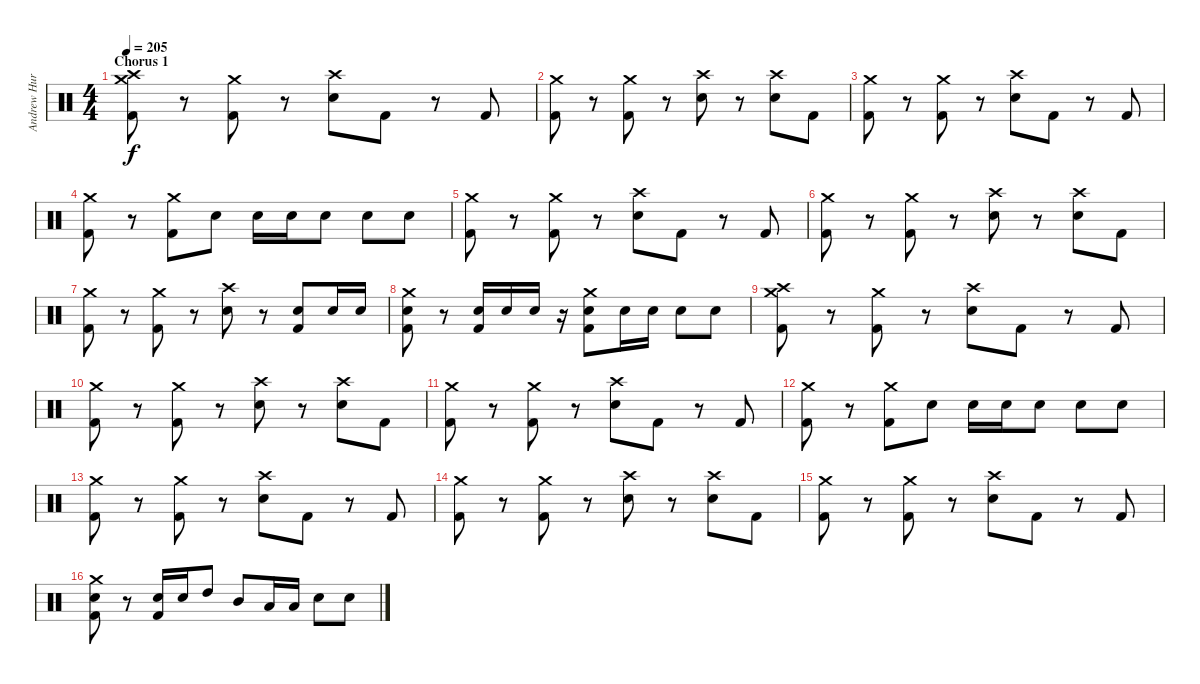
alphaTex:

\track ("Andrew Hurley (Drums)" "Andrew Hur") {instrument percussion}
\staff {score}
\articulation defaults
\ts (4 4)
\section ("" "Chorus 1")
\tempo 205
\clef neutral
\ks c
("Crash high (hit)" "Crash medium (hit)" "Kick (hit) 2").8{dy f} r.8 ("Crash medium (hit)" "Kick (hit) 2").8 r.8 ("Crash high (hit)" "Electric Snare (hit)").8 "Kick (hit) 2".8 r.8 "Kick (hit) 2".8 |
("Crash medium (hit)" "Kick (hit) 2").8 r.8 ("Crash medium (hit)" "Kick (hit) 2").8 r.8 ("Crash high (hit)" "Electric Snare (hit)").8 r.8 ("Crash high (hit)" "Electric Snare (hit)").8 "Kick (hit) 2".8 |
("Crash medium (hit)" "Kick (hit) 2").8 r.8 ("Crash medium (hit)" "Kick (hit) 2").8 r.8 ("Crash high (hit)" "Electric Snare (hit)").8 "Kick (hit) 2".8 r.8 "Kick (hit) 2".8 |
("Crash medium (hit)" "Kick (hit) 2").8 r.8 ("Crash medium (hit)" "Kick (hit) 2").8 "Electric Snare (hit)".8 "Electric Snare (hit)".16 "Electric Snare (hit)".16 "Electric Snare (hit)".8 "Electric Snare (hit)".8 "Electric Snare (hit)".8 |
("Crash medium (hit)" "Kick (hit) 2").8 r.8 ("Crash medium (hit)" "Kick (hit) 2").8 r.8 ("Crash high (hit)" "Electric Snare (hit)").8 "Kick (hit) 2".8 r.8 "Kick (hit) 2".8 |
("Crash medium (hit)" "Kick (hit) 2").8 r.8 ("Crash medium (hit)" "Kick (hit) 2").8 r.8 ("Crash high (hit)" "Electric Snare (hit)").8 r.8 ("Crash high (hit)" "Electric Snare (hit)").8 "Kick (hit) 2".8 |
("Crash medium (hit)" "Kick (hit) 2").8 r.8 ("Crash medium (hit)" "Kick (hit) 2").8 r.8 ("Crash high (hit)" "Electric Snare (hit)").8 r.8 ("Electric Snare (hit)" "Kick (hit) 2").8 "Electric Snare (hit)".16 "Electric Snare (hit)".16 |
("Crash medium (hit)" "Electric Snare (hit)" "Kick (hit) 2").8 r.8 ("Electric Snare (hit)" "Kick (hit) 2").16 "Electric Snare (hit)".16 "Electric Snare (hit)".16 r.16 ("Crash medium (hit)" "Electric Snare (hit)" "Kick (hit) 2").8 "Electric Snare (hit)".16 "Electric Snare (hit)".16 "Electric Snare (hit)".8 "Electric Snare (hit)".8 |
("Crash high (hit)" "Crash medium (hit)" "Kick (hit) 2").8 r.8 ("Crash medium (hit)" "Kick (hit) 2").8 r.8 ("Crash high (hit)" "Electric Snare (hit)").8 "Kick (hit) 2".8 r.8 "Kick (hit) 2".8 |
("Crash medium (hit)" "Kick (hit) 2").8 r.8 ("Crash medium (hit)" "Kick (hit) 2").8 r.8 ("Crash high (hit)" "Electric Snare (hit)").8 r.8 ("Crash high (hit)" "Electric Snare (hit)").8 "Kick (hit) 2".8 |
("Crash medium (hit)" "Kick (hit) 2").8 r.8 ("Crash medium (hit)" "Kick (hit) 2").8 r.8 ("Crash high (hit)" "Electric Snare (hit)").8 "Kick (hit) 2".8 r.8 "Kick (hit) 2".8 |
("Crash medium (hit)" "Kick (hit) 2").8 r.8 ("Crash medium (hit)" "Kick (hit) 2").8 "Electric Snare (hit)".8 "Electric Snare (hit)".16 "Electric Snare (hit)".16 "Electric Snare (hit)".8 "Electric Snare (hit)".8 "Electric Snare (hit)".8 |
("Crash medium (hit)" "Kick (hit) 2").8 r.8 ("Crash medium (hit)" "Kick (hit) 2").8 r.8 ("Crash high (hit)" "Electric Snare (hit)").8 "Kick (hit) 2".8 r.8 "Kick (hit) 2".8 |
("Crash medium (hit)" "Kick (hit) 2").8 r.8 ("Crash medium (hit)" "Kick (hit) 2").8 r.8 ("Crash high (hit)" "Electric Snare (hit)").8 r.8 ("Crash high (hit)" "Electric Snare (hit)").8 "Kick (hit) 2".8 |
("Crash medium (hit)" "Kick (hit) 2").8 r.8 ("Crash medium (hit)" "Kick (hit) 2").8 r.8 ("Crash high (hit)" "Electric Snare (hit)").8 "Kick (hit) 2".8 r.8 "Kick (hit) 2".8 |
("Crash medium (hit)" "Electric Snare (hit)" "Kick (hit) 2").8 r.8 ("Electric Snare (hit)" "Kick (hit) 2").16 "Electric Snare (hit)".16 "High Tom (hit)".8 "Mid Tom (hit)".8 "Low Tom (hit)".16 "Low Tom (hit)".16 "Electric Snare (hit)".8 "Electric Snare (hit)".8
